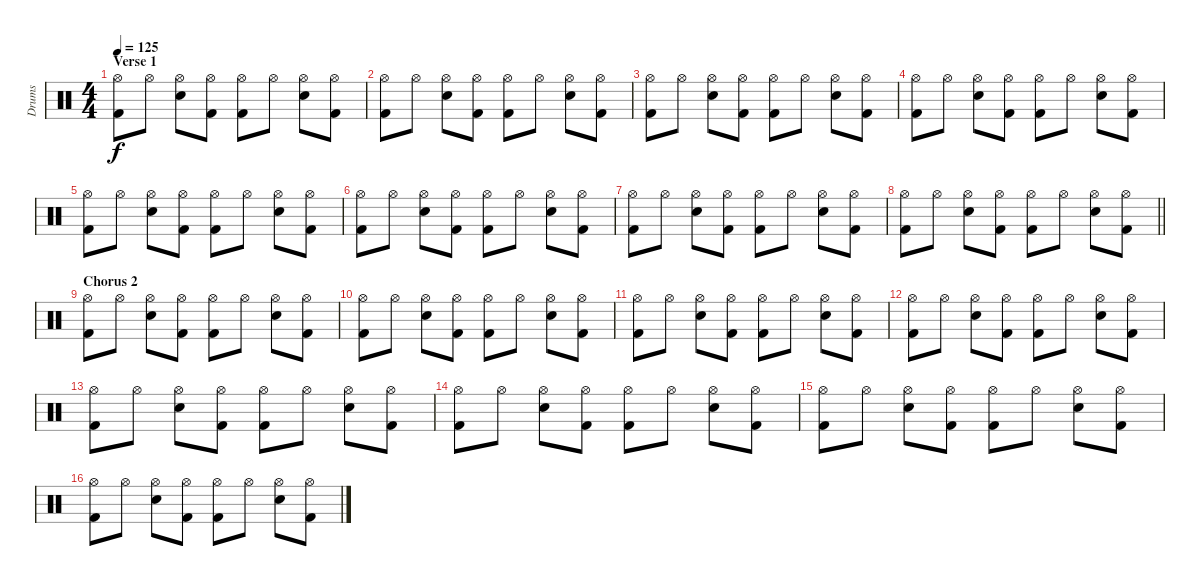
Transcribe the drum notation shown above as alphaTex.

\track ("Drums" "Drums") {instrument percussion}
\staff {score}
\articulation defaults
\ts (4 4)
\section ("" "Verse 1")
\tempo 125
\clef neutral
\ks c
("Kick (hit) 2" "Hi-Hat (open)").8{dy f} "Hi-Hat (open)".8 ("Electric Snare (hit)" "Hi-Hat (open)").8 ("Kick (hit) 2" "Hi-Hat (open)").8 ("Kick (hit) 2" "Hi-Hat (open)").8 "Hi-Hat (open)".8 ("Electric Snare (hit)" "Hi-Hat (open)").8 ("Kick (hit) 2" "Hi-Hat (open)").8 |
("Kick (hit) 2" "Hi-Hat (open)").8 "Hi-Hat (open)".8 ("Electric Snare (hit)" "Hi-Hat (open)").8 ("Kick (hit) 2" "Hi-Hat (open)").8 ("Kick (hit) 2" "Hi-Hat (open)").8 "Hi-Hat (open)".8 ("Electric Snare (hit)" "Hi-Hat (open)").8 ("Kick (hit) 2" "Hi-Hat (open)").8 |
("Kick (hit) 2" "Hi-Hat (open)").8 "Hi-Hat (open)".8 ("Electric Snare (hit)" "Hi-Hat (open)").8 ("Kick (hit) 2" "Hi-Hat (open)").8 ("Kick (hit) 2" "Hi-Hat (open)").8 "Hi-Hat (open)".8 ("Electric Snare (hit)" "Hi-Hat (open)").8 ("Kick (hit) 2" "Hi-Hat (open)").8 |
("Kick (hit) 2" "Hi-Hat (open)").8 "Hi-Hat (open)".8 ("Electric Snare (hit)" "Hi-Hat (open)").8 ("Kick (hit) 2" "Hi-Hat (open)").8 ("Kick (hit) 2" "Hi-Hat (open)").8 "Hi-Hat (open)".8 ("Electric Snare (hit)" "Hi-Hat (open)").8 ("Kick (hit) 2" "Hi-Hat (open)").8 |
("Kick (hit) 2" "Hi-Hat (open)").8 "Hi-Hat (open)".8 ("Electric Snare (hit)" "Hi-Hat (open)").8 ("Kick (hit) 2" "Hi-Hat (open)").8 ("Kick (hit) 2" "Hi-Hat (open)").8 "Hi-Hat (open)".8 ("Electric Snare (hit)" "Hi-Hat (open)").8 ("Kick (hit) 2" "Hi-Hat (open)").8 |
("Kick (hit) 2" "Hi-Hat (open)").8 "Hi-Hat (open)".8 ("Electric Snare (hit)" "Hi-Hat (open)").8 ("Kick (hit) 2" "Hi-Hat (open)").8 ("Kick (hit) 2" "Hi-Hat (open)").8 "Hi-Hat (open)".8 ("Electric Snare (hit)" "Hi-Hat (open)").8 ("Kick (hit) 2" "Hi-Hat (open)").8 |
("Kick (hit) 2" "Hi-Hat (open)").8 "Hi-Hat (open)".8 ("Electric Snare (hit)" "Hi-Hat (open)").8 ("Kick (hit) 2" "Hi-Hat (open)").8 ("Kick (hit) 2" "Hi-Hat (open)").8 "Hi-Hat (open)".8 ("Electric Snare (hit)" "Hi-Hat (open)").8 ("Kick (hit) 2" "Hi-Hat (open)").8 |
\barLineRight lightlight
("Kick (hit) 2" "Hi-Hat (open)").8 "Hi-Hat (open)".8 ("Electric Snare (hit)" "Hi-Hat (open)").8 ("Kick (hit) 2" "Hi-Hat (open)").8 ("Kick (hit) 2" "Hi-Hat (open)").8 "Hi-Hat (open)".8 ("Electric Snare (hit)" "Hi-Hat (open)").8 ("Kick (hit) 2" "Hi-Hat (open)").8 |
\section ("" "Chorus 2")
("Kick (hit) 2" "Hi-Hat (open)").8 "Hi-Hat (open)".8 ("Electric Snare (hit)" "Hi-Hat (open)").8 ("Kick (hit) 2" "Hi-Hat (open)").8 ("Kick (hit) 2" "Hi-Hat (open)").8 "Hi-Hat (open)".8 ("Electric Snare (hit)" "Hi-Hat (open)").8 ("Kick (hit) 2" "Hi-Hat (open)").8 |
("Kick (hit) 2" "Hi-Hat (open)").8 "Hi-Hat (open)".8 ("Electric Snare (hit)" "Hi-Hat (open)").8 ("Kick (hit) 2" "Hi-Hat (open)").8 ("Kick (hit) 2" "Hi-Hat (open)").8 "Hi-Hat (open)".8 ("Electric Snare (hit)" "Hi-Hat (open)").8 ("Kick (hit) 2" "Hi-Hat (open)").8 |
("Kick (hit) 2" "Hi-Hat (open)").8 "Hi-Hat (open)".8 ("Electric Snare (hit)" "Hi-Hat (open)").8 ("Kick (hit) 2" "Hi-Hat (open)").8 ("Kick (hit) 2" "Hi-Hat (open)").8 "Hi-Hat (open)".8 ("Electric Snare (hit)" "Hi-Hat (open)").8 ("Kick (hit) 2" "Hi-Hat (open)").8 |
("Kick (hit) 2" "Hi-Hat (open)").8 "Hi-Hat (open)".8 ("Electric Snare (hit)" "Hi-Hat (open)").8 ("Kick (hit) 2" "Hi-Hat (open)").8 ("Kick (hit) 2" "Hi-Hat (open)").8 "Hi-Hat (open)".8 ("Electric Snare (hit)" "Hi-Hat (open)").8 ("Kick (hit) 2" "Hi-Hat (open)").8 |
("Kick (hit) 2" "Hi-Hat (open)").8 "Hi-Hat (open)".8 ("Electric Snare (hit)" "Hi-Hat (open)").8 ("Kick (hit) 2" "Hi-Hat (open)").8 ("Kick (hit) 2" "Hi-Hat (open)").8 "Hi-Hat (open)".8 ("Electric Snare (hit)" "Hi-Hat (open)").8 ("Kick (hit) 2" "Hi-Hat (open)").8 |
("Kick (hit) 2" "Hi-Hat (open)").8 "Hi-Hat (open)".8 ("Electric Snare (hit)" "Hi-Hat (open)").8 ("Kick (hit) 2" "Hi-Hat (open)").8 ("Kick (hit) 2" "Hi-Hat (open)").8 "Hi-Hat (open)".8 ("Electric Snare (hit)" "Hi-Hat (open)").8 ("Kick (hit) 2" "Hi-Hat (open)").8 |
("Kick (hit) 2" "Hi-Hat (open)").8 "Hi-Hat (open)".8 ("Electric Snare (hit)" "Hi-Hat (open)").8 ("Kick (hit) 2" "Hi-Hat (open)").8 ("Kick (hit) 2" "Hi-Hat (open)").8 "Hi-Hat (open)".8 ("Electric Snare (hit)" "Hi-Hat (open)").8 ("Kick (hit) 2" "Hi-Hat (open)").8 |
("Kick (hit) 2" "Hi-Hat (open)").8 "Hi-Hat (open)".8 ("Electric Snare (hit)" "Hi-Hat (open)").8 ("Kick (hit) 2" "Hi-Hat (open)").8 ("Kick (hit) 2" "Hi-Hat (open)").8 "Hi-Hat (open)".8 ("Electric Snare (hit)" "Hi-Hat (open)").8 ("Kick (hit) 2" "Hi-Hat (open)").8
